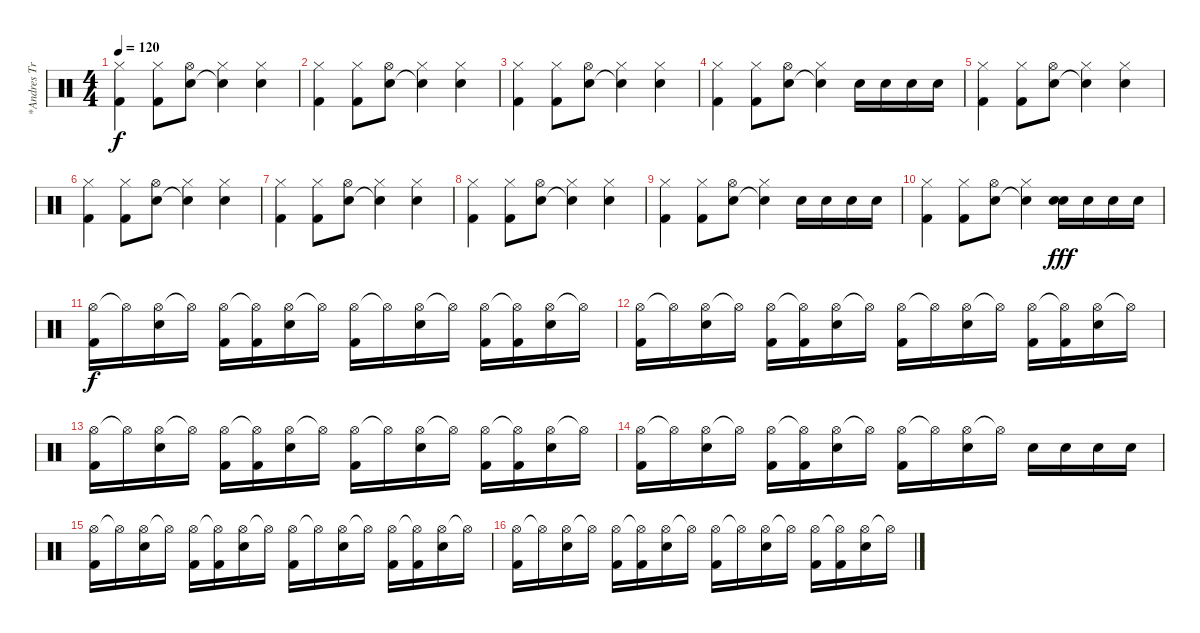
\track ("*Andres Trujillo" "*Andres Tr") {instrument percussion}
\staff {score}
\articulation defaults
\ts (4 4)
\tempo 120
\clef neutral
\ks c
("Hi-Hat (closed)" "Kick (hit) 2").4{dy f} ("Hi-Hat (closed)" "Kick (hit) 2").8 ("Hi-Hat (open)" "Electric Snare (hit)").8 ("Hi-Hat (closed)" "Snare (hit)"{t}).4 ("Hi-Hat (closed)" "Electric Snare (hit)").4 |
("Hi-Hat (closed)" "Kick (hit) 2").4 ("Hi-Hat (closed)" "Kick (hit) 2").8 ("Hi-Hat (open)" "Electric Snare (hit)").8 ("Hi-Hat (closed)" "Snare (hit)"{t}).4 ("Hi-Hat (closed)" "Electric Snare (hit)").4 |
("Hi-Hat (closed)" "Kick (hit) 2").4 ("Hi-Hat (closed)" "Kick (hit) 2").8 ("Hi-Hat (open)" "Electric Snare (hit)").8 ("Hi-Hat (closed)" "Snare (hit)"{t}).4 ("Hi-Hat (closed)" "Electric Snare (hit)").4 |
("Hi-Hat (closed)" "Kick (hit) 2").4 ("Hi-Hat (closed)" "Kick (hit) 2").8 ("Hi-Hat (open)" "Electric Snare (hit)").8 ("Hi-Hat (closed)" "Snare (hit)"{t}).4 "Electric Snare (hit)".16 "Electric Snare (hit)".16 "Electric Snare (hit)".16 "Electric Snare (hit)".16 |
("Hi-Hat (closed)" "Kick (hit) 2").4 ("Hi-Hat (closed)" "Kick (hit) 2").8 ("Hi-Hat (open)" "Electric Snare (hit)").8 ("Hi-Hat (closed)" "Snare (hit)"{t}).4 ("Hi-Hat (closed)" "Electric Snare (hit)").4 |
("Hi-Hat (closed)" "Kick (hit) 2").4 ("Hi-Hat (closed)" "Kick (hit) 2").8 ("Hi-Hat (open)" "Electric Snare (hit)").8 ("Hi-Hat (closed)" "Snare (hit)"{t}).4 ("Hi-Hat (closed)" "Electric Snare (hit)").4 |
("Hi-Hat (closed)" "Kick (hit) 2").4 ("Hi-Hat (closed)" "Kick (hit) 2").8 ("Hi-Hat (open)" "Electric Snare (hit)").8 ("Hi-Hat (closed)" "Snare (hit)"{t}).4 ("Hi-Hat (closed)" "Electric Snare (hit)").4 |
("Hi-Hat (closed)" "Kick (hit) 2").4 ("Hi-Hat (closed)" "Kick (hit) 2").8 ("Hi-Hat (open)" "Electric Snare (hit)").8 ("Hi-Hat (closed)" "Snare (hit)"{t}).4 ("Hi-Hat (closed)" "Electric Snare (hit)").4 |
("Hi-Hat (closed)" "Kick (hit) 2").4 ("Hi-Hat (closed)" "Kick (hit) 2").8 ("Hi-Hat (open)" "Electric Snare (hit)").8 ("Hi-Hat (closed)" "Snare (hit)"{t}).4 "Electric Snare (hit)".16 "Electric Snare (hit)".16 "Electric Snare (hit)".16 "Electric Snare (hit)".16 |
("Hi-Hat (closed)" "Kick (hit) 2").4 ("Hi-Hat (closed)" "Kick (hit) 2").8 ("Hi-Hat (open)" "Electric Snare (hit)").8 ("Hi-Hat (closed)" "Snare (hit)"{t}).4 ("Electric Snare (hit)" "Electric Snare (hit)").16{dy fff} "Electric Snare (hit)".16 "Electric Snare (hit)".16 "Electric Snare (hit)".16 |
("Hi-Hat (open)" "Kick (hit) 2").16{dy f} "Hi-Hat (open)"{t}.16 ("Hi-Hat (open)" "Electric Snare (hit)").16 "Hi-Hat (open)"{t}.16 ("Hi-Hat (open)" "Kick (hit) 2").16 ("Hi-Hat (open)"{t} "Kick (hit) 2").16 ("Hi-Hat (open)" "Electric Snare (hit)").16 "Hi-Hat (open)"{t}.16 ("Hi-Hat (open)" "Kick (hit) 2").16 "Hi-Hat (open)"{t}.16 ("Hi-Hat (open)" "Electric Snare (hit)").16 "Hi-Hat (open)"{t}.16 ("Hi-Hat (open)" "Kick (hit) 2").16 ("Hi-Hat (open)"{t} "Kick (hit) 2").16 ("Hi-Hat (open)" "Electric Snare (hit)").16 "Hi-Hat (open)"{t}.16 |
("Hi-Hat (open)" "Kick (hit) 2").16 "Hi-Hat (open)"{t}.16 ("Hi-Hat (open)" "Electric Snare (hit)").16 "Hi-Hat (open)"{t}.16 ("Hi-Hat (open)" "Kick (hit) 2").16 ("Hi-Hat (open)"{t} "Kick (hit) 2").16 ("Hi-Hat (open)" "Electric Snare (hit)").16 "Hi-Hat (open)"{t}.16 ("Hi-Hat (open)" "Kick (hit) 2").16 "Hi-Hat (open)"{t}.16 ("Hi-Hat (open)" "Electric Snare (hit)").16 "Hi-Hat (open)"{t}.16 ("Hi-Hat (open)" "Kick (hit) 2").16 ("Hi-Hat (open)"{t} "Kick (hit) 2").16 ("Hi-Hat (open)" "Electric Snare (hit)").16 "Hi-Hat (open)"{t}.16 |
("Hi-Hat (open)" "Kick (hit) 2").16 "Hi-Hat (open)"{t}.16 ("Hi-Hat (open)" "Electric Snare (hit)").16 "Hi-Hat (open)"{t}.16 ("Hi-Hat (open)" "Kick (hit) 2").16 ("Hi-Hat (open)"{t} "Kick (hit) 2").16 ("Hi-Hat (open)" "Electric Snare (hit)").16 "Hi-Hat (open)"{t}.16 ("Hi-Hat (open)" "Kick (hit) 2").16 "Hi-Hat (open)"{t}.16 ("Hi-Hat (open)" "Electric Snare (hit)").16 "Hi-Hat (open)"{t}.16 ("Hi-Hat (open)" "Kick (hit) 2").16 ("Hi-Hat (open)"{t} "Kick (hit) 2").16 ("Hi-Hat (open)" "Electric Snare (hit)").16 "Hi-Hat (open)"{t}.16 |
("Hi-Hat (open)" "Kick (hit) 2").16 "Hi-Hat (open)"{t}.16 ("Hi-Hat (open)" "Electric Snare (hit)").16 "Hi-Hat (open)"{t}.16 ("Hi-Hat (open)" "Kick (hit) 2").16 ("Hi-Hat (open)"{t} "Kick (hit) 2").16 ("Hi-Hat (open)" "Electric Snare (hit)").16 "Hi-Hat (open)"{t}.16 ("Hi-Hat (open)" "Kick (hit) 2").16 "Hi-Hat (open)"{t}.16 ("Hi-Hat (open)" "Electric Snare (hit)").16 "Hi-Hat (open)"{t}.16 "Electric Snare (hit)".16 "Electric Snare (hit)".16 "Electric Snare (hit)".16 "Electric Snare (hit)".16 |
("Hi-Hat (open)" "Kick (hit) 2").16 "Hi-Hat (open)"{t}.16 ("Hi-Hat (open)" "Electric Snare (hit)").16 "Hi-Hat (open)"{t}.16 ("Hi-Hat (open)" "Kick (hit) 2").16 ("Hi-Hat (open)"{t} "Kick (hit) 2").16 ("Hi-Hat (open)" "Electric Snare (hit)").16 "Hi-Hat (open)"{t}.16 ("Hi-Hat (open)" "Kick (hit) 2").16 "Hi-Hat (open)"{t}.16 ("Hi-Hat (open)" "Electric Snare (hit)").16 "Hi-Hat (open)"{t}.16 ("Hi-Hat (open)" "Kick (hit) 2").16 ("Hi-Hat (open)"{t} "Kick (hit) 2").16 ("Hi-Hat (open)" "Electric Snare (hit)").16 "Hi-Hat (open)"{t}.16 |
("Hi-Hat (open)" "Kick (hit) 2").16 "Hi-Hat (open)"{t}.16 ("Hi-Hat (open)" "Electric Snare (hit)").16 "Hi-Hat (open)"{t}.16 ("Hi-Hat (open)" "Kick (hit) 2").16 ("Hi-Hat (open)"{t} "Kick (hit) 2").16 ("Hi-Hat (open)" "Electric Snare (hit)").16 "Hi-Hat (open)"{t}.16 ("Hi-Hat (open)" "Kick (hit) 2").16 "Hi-Hat (open)"{t}.16 ("Hi-Hat (open)" "Electric Snare (hit)").16 "Hi-Hat (open)"{t}.16 ("Hi-Hat (open)" "Kick (hit) 2").16 ("Hi-Hat (open)"{t} "Kick (hit) 2").16 ("Hi-Hat (open)" "Electric Snare (hit)").16 "Hi-Hat (open)"{t}.16
